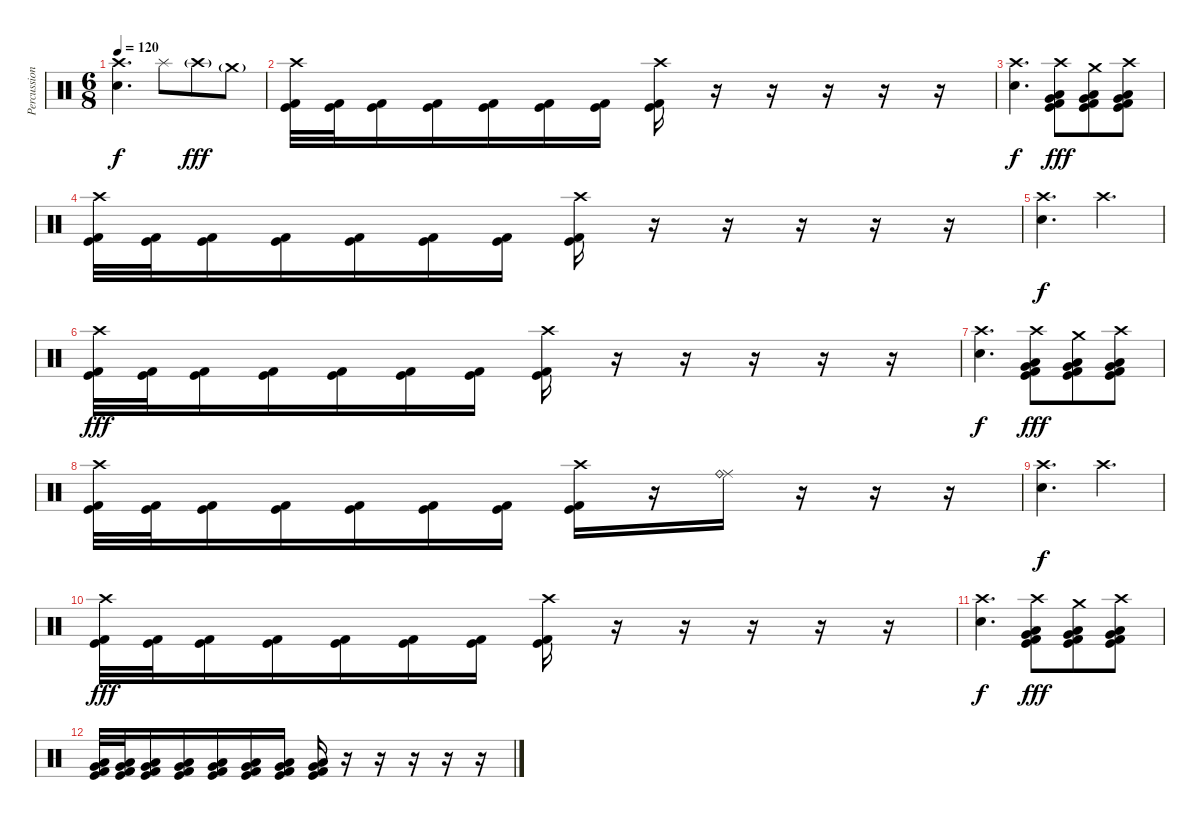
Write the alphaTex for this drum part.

\track ("Percussion" "Percussion") {instrument percussion}
\staff {score}
\articulation defaults
\ts (6 8)
\tempo 120
\clef neutral
\ks c
("Crash high (hit)" "Electric Snare (hit)").4{d dy f} "Splash (hit)".8 "Crash high (hit)"{g}.8{dy fff} "Crash medium (hit)"{g}.8 |
("Crash high (hit)" "Kick (hit)" "Kick (hit) 2").32 ("Kick (hit)" "Kick (hit) 2").32 ("Kick (hit)" "Kick (hit) 2").16 ("Kick (hit)" "Kick (hit) 2").16 ("Kick (hit)" "Kick (hit) 2").16 ("Kick (hit)" "Kick (hit) 2").16 ("Kick (hit)" "Kick (hit) 2").16 ("Crash high (hit)" "Kick (hit)" "Kick (hit) 2").16 r.16 r.16 r.16 r.16 r.16 |
("Crash high (hit)" "Electric Snare (hit)").4{d dy f} ("Crash high (hit)" "Very Low Tom (hit)" "Low Tom (hit)" "Kick (hit)" "Kick (hit) 2").8{dy fff} ("Crash medium (hit)" "Very Low Tom (hit)" "Low Tom (hit)" "Kick (hit)" "Kick (hit) 2").8 ("Crash high (hit)" "Very Low Tom (hit)" "Low Tom (hit)" "Kick (hit)" "Kick (hit) 2").8 |
("Crash high (hit)" "Kick (hit)" "Kick (hit) 2").32 ("Kick (hit)" "Kick (hit) 2").32 ("Kick (hit)" "Kick (hit) 2").16 ("Kick (hit)" "Kick (hit) 2").16 ("Kick (hit)" "Kick (hit) 2").16 ("Kick (hit)" "Kick (hit) 2").16 ("Kick (hit)" "Kick (hit) 2").16 ("Crash high (hit)" "Kick (hit)" "Kick (hit) 2").16 r.16 r.16 r.16 r.16 r.16 |
("Crash high (hit)" "Electric Snare (hit)").4{d dy f} "Crash high (hit)".4{d} |
("Crash high (hit)" "Kick (hit)" "Kick (hit) 2").32{dy fff} ("Kick (hit)" "Kick (hit) 2").32 ("Kick (hit)" "Kick (hit) 2").16 ("Kick (hit)" "Kick (hit) 2").16 ("Kick (hit)" "Kick (hit) 2").16 ("Kick (hit)" "Kick (hit) 2").16 ("Kick (hit)" "Kick (hit) 2").16 ("Crash high (hit)" "Kick (hit)" "Kick (hit) 2").16 r.16 r.16 r.16 r.16 r.16 |
("Crash high (hit)" "Electric Snare (hit)").4{d dy f} ("Crash high (hit)" "Very Low Tom (hit)" "Low Tom (hit)" "Kick (hit)" "Kick (hit) 2").8{dy fff} ("Crash medium (hit)" "Very Low Tom (hit)" "Low Tom (hit)" "Kick (hit)" "Kick (hit) 2").8 ("Crash high (hit)" "Very Low Tom (hit)" "Low Tom (hit)" "Kick (hit)" "Kick (hit) 2").8 |
("Crash high (hit)" "Kick (hit)" "Kick (hit) 2").32 ("Kick (hit)" "Kick (hit) 2").32 ("Kick (hit)" "Kick (hit) 2").16 ("Kick (hit)" "Kick (hit) 2").16 ("Kick (hit)" "Kick (hit) 2").16 ("Kick (hit)" "Kick (hit) 2").16 ("Kick (hit)" "Kick (hit) 2").16 ("Crash high (hit)" "Kick (hit)" "Kick (hit) 2").16 r.16 ("Ride (middle)" "Ride (bell)").16 r.16 r.16 r.16 |
("Crash high (hit)" "Electric Snare (hit)").4{d dy f} "Crash high (hit)".4{d} |
("Crash high (hit)" "Kick (hit)" "Kick (hit) 2").32{dy fff} ("Kick (hit)" "Kick (hit) 2").32 ("Kick (hit)" "Kick (hit) 2").16 ("Kick (hit)" "Kick (hit) 2").16 ("Kick (hit)" "Kick (hit) 2").16 ("Kick (hit)" "Kick (hit) 2").16 ("Kick (hit)" "Kick (hit) 2").16 ("Crash high (hit)" "Kick (hit)" "Kick (hit) 2").16 r.16 r.16 r.16 r.16 r.16 |
("Crash high (hit)" "Electric Snare (hit)").4{d dy f} ("Crash high (hit)" "Very Low Tom (hit)" "Low Tom (hit)" "Kick (hit)" "Kick (hit) 2").8{dy fff} ("Crash medium (hit)" "Very Low Tom (hit)" "Low Tom (hit)" "Kick (hit)" "Kick (hit) 2").8 ("Crash high (hit)" "Very Low Tom (hit)" "Low Tom (hit)" "Kick (hit)" "Kick (hit) 2").8 |
("Low Tom (hit)" "Very Low Tom (hit)" "Kick (hit)" "Kick (hit) 2").32 ("Low Tom (hit)" "Very Low Tom (hit)" "Kick (hit)" "Kick (hit) 2").32 ("Low Tom (hit)" "Very Low Tom (hit)" "Kick (hit)" "Kick (hit) 2").16 ("Low Tom (hit)" "Very Low Tom (hit)" "Kick (hit)" "Kick (hit) 2").16 ("Low Tom (hit)" "Very Low Tom (hit)" "Kick (hit)" "Kick (hit) 2").16 ("Low Tom (hit)" "Very Low Tom (hit)" "Kick (hit)" "Kick (hit) 2").16 ("Low Tom (hit)" "Very Low Tom (hit)" "Kick (hit)" "Kick (hit) 2").16 ("Low Tom (hit)" "Very Low Tom (hit)" "Kick (hit)" "Kick (hit) 2").16 r.16 r.16 r.16 r.16 r.16
